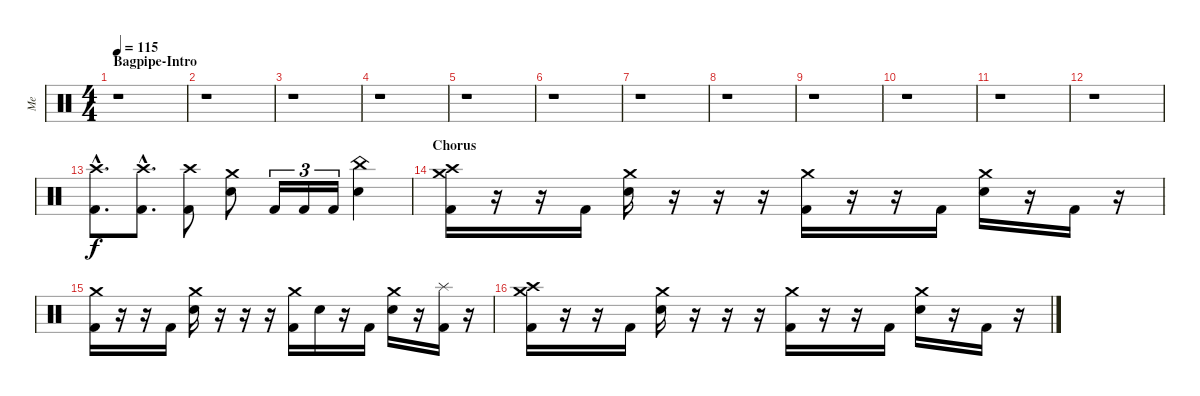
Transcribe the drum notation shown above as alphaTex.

\track ("Me" "Me") {instrument percussion}
\staff {score}
\articulation defaults
\ts (4 4)
\section ("" "Bagpipe-Intro")
\tempo 115
\clef neutral
\ks c
r.1{dy f} |
r.1 |
r.1 |
r.1 |
r.1 |
r.1 |
r.1 |
r.1 |
r.1 |
r.1 |
r.1 |
r.1 |
("Crash high (hit)"{hac} "Kick (hit) 2"{hac}).8{d} ("Crash high (hit)"{hac} "Kick (hit) 2"{hac}).8{d} ("Crash high (hit)" "Kick (hit) 2").8 ("Crash medium (hit)" "Electric Snare (hit)").8 "Kick (hit) 2".16{tu (3 2)} "Kick (hit) 2".16{tu (3 2)} "Kick (hit) 2".16{tu (3 2)} ("China (hit)" "Electric Snare (hit)").4 |
\section ("" "Chorus")
("Crash high (hit)" "Crash medium (hit)" "Kick (hit) 2").16 r.16 r.16 "Kick (hit) 2".16 ("Crash medium (hit)" "Electric Snare (hit)").16 r.16 r.16 r.16 ("Crash medium (hit)" "Kick (hit) 2").16 r.16 r.16 "Kick (hit) 2".16 ("Crash medium (hit)" "Electric Snare (hit)").16 r.16 "Kick (hit) 2".16 r.16 |
("Crash medium (hit)" "Kick (hit) 2").16 r.16 r.16 "Kick (hit) 2".16 ("Crash medium (hit)" "Electric Snare (hit)").16 r.16 r.16 r.16 ("Crash medium (hit)" "Kick (hit) 2").16 "Electric Snare (hit)".16 r.16 "Kick (hit) 2".16 ("Crash medium (hit)" "Electric Snare (hit)").16 r.16 ("Splash (hit)" "Kick (hit) 2").16 r.16 |
("Crash high (hit)" "Crash medium (hit)" "Kick (hit) 2").16 r.16 r.16 "Kick (hit) 2".16 ("Crash medium (hit)" "Electric Snare (hit)").16 r.16 r.16 r.16 ("Crash medium (hit)" "Kick (hit) 2").16 r.16 r.16 "Kick (hit) 2".16 ("Crash medium (hit)" "Electric Snare (hit)").16 r.16 "Kick (hit) 2".16 r.16
